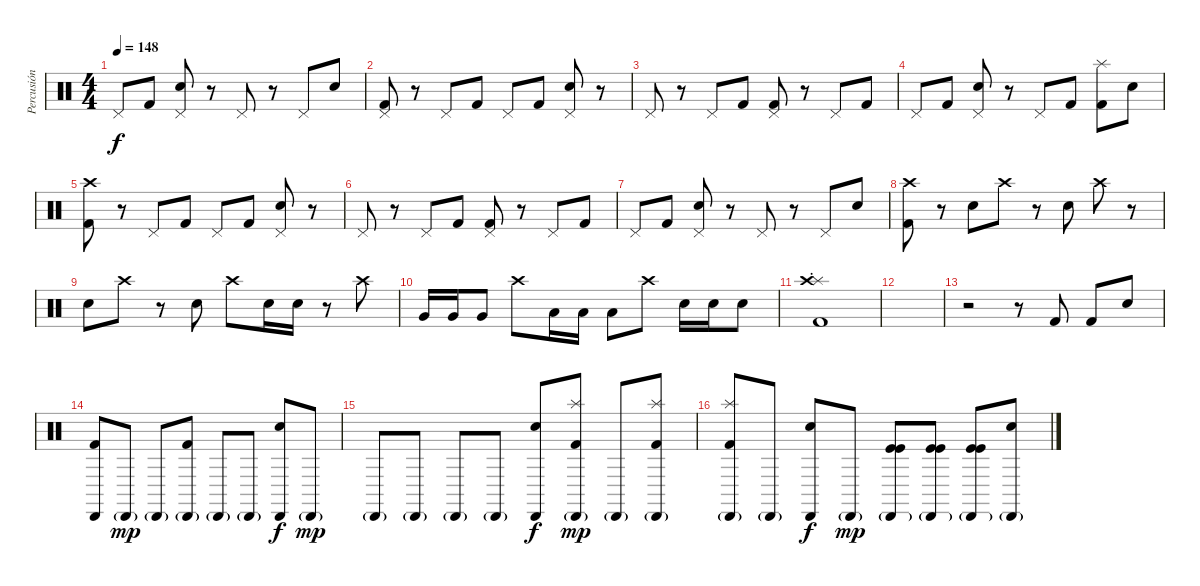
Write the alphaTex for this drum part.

\track ("Percusión" "Percusión") {instrument percussion}
\staff {score}
\articulation defaults
\ts (4 4)
\tempo 148
\clef neutral
\ks c "Pedal Hi-Hat (hit)".8{dy f} "Kick (hit) 2".8
("Pedal Hi-Hat (hit)" "Snare (hit) 2").8 r.8 "Pedal Hi-Hat (hit)".8 r.8 "Pedal Hi-Hat (hit)".8 "Snare (hit) 2".8 |
("Pedal Hi-Hat (hit)" "Kick (hit) 2").8 r.8 "Pedal Hi-Hat (hit)".8 "Kick (hit) 2".8 "Pedal Hi-Hat (hit)".8 "Kick (hit) 2".8 ("Pedal Hi-Hat (hit)" "Snare (hit) 2").8 r.8 |
"Pedal Hi-Hat (hit)".8 r.8 "Pedal Hi-Hat (hit)".8 "Kick (hit) 2".8 ("Pedal Hi-Hat (hit)" "Kick (hit) 2").8 r.8 "Pedal Hi-Hat (hit)".8 "Kick (hit) 2".8 |
"Pedal Hi-Hat (hit)".8 "Kick (hit) 2".8 ("Pedal Hi-Hat (hit)" "Snare (hit) 2").8 r.8 "Pedal Hi-Hat (hit)".8 "Kick (hit) 2".8 ("Splash (hit)" "Kick (hit) 2").8 "Snare (hit) 2".8 |
("Crash high (hit)" "Kick (hit) 2").8 r.8 "Pedal Hi-Hat (hit)".8 "Kick (hit) 2".8 "Pedal Hi-Hat (hit)".8 "Kick (hit) 2".8 ("Pedal Hi-Hat (hit)" "Snare (hit) 2").8 r.8 |
"Pedal Hi-Hat (hit)".8 r.8 "Pedal Hi-Hat (hit)".8 "Kick (hit) 2".8 ("Pedal Hi-Hat (hit)" "Kick (hit) 2").8 r.8 "Pedal Hi-Hat (hit)".8 "Kick (hit) 2".8 |
"Pedal Hi-Hat (hit)".8 "Kick (hit) 2".8 ("Pedal Hi-Hat (hit)" "Snare (hit) 2").8 r.8 "Pedal Hi-Hat (hit)".8 r.8 "Pedal Hi-Hat (hit)".8 "Snare (hit) 2".8 |
("Crash high (hit)" "Kick (hit) 2").8 r.8 "Snare (hit) 2".8 "Crash high (hit)".8 r.8 "Snare (hit) 2".8 "Crash high (hit)".8 r.8 |
"Snare (hit) 2".8 "Crash high (hit)".8 r.8 "Snare (hit) 2".8 "Crash high (hit)".8 "Snare (hit) 2".16 "Snare (hit) 2".16 r.8 "Crash high (hit)".8 |
"Very Low Tom (hit)".16 "Very Low Tom (hit)".16 "Very Low Tom (hit)".8 "Crash high (hit)".8 "Low Floor Tom (hit)".16 "Low Floor Tom (hit)".16 "Low Floor Tom (hit)".8 "Crash high (hit)".8 "Snare (hit) 2".16 "Snare (hit) 2".16 "Snare (hit) 2".8 |
("Splash (hit)" "Crash high (hit)" "Kick (hit) 2"{st}).1 |
|
r.2 r.8 "Kick (hit) 2".8 "Kick (hit) 2".8 "Electric Snare (hit)".8 |
("Kick (hit) 2" "Cabasa (hit)").8 "Cabasa (hit)"{g}.8{dy mp} "Cabasa (hit)"{g}.8 ("Kick (hit) 2" "Cabasa (hit)"{g}).8 "Cabasa (hit)"{g}.8 "Cabasa (hit)"{g}.8 ("Electric Snare (hit)" "Cabasa (hit)").8{dy f} "Cabasa (hit)"{g}.8{dy mp} |
"Cabasa (hit)"{g}.8 "Cabasa (hit)"{g}.8 "Cabasa (hit)"{g}.8 "Cabasa (hit)"{g}.8 ("Electric Snare (hit)" "Cabasa (hit)").8{dy f} ("Splash (hit)" "Kick (hit) 2" "Cabasa (hit)"{g}).8{dy mp} "Cabasa (hit)"{g}.8 ("Splash (hit)" "Kick (hit) 2" "Cabasa (hit)"{g}).8 |
("Splash (hit)" "Kick (hit) 2" "Cabasa (hit)"{g}).8 "Cabasa (hit)"{g}.8 ("Electric Snare (hit)" "Cabasa (hit)").8{dy f} "Cabasa (hit)"{g}.8{dy mp} ("Kick (hit)" "Kick (hit)" "Cabasa (hit)"{g}).8 ("Kick (hit)" "Kick (hit)" "Cabasa (hit)"{g}).8 ("Kick (hit)" "Kick (hit)" "Cabasa (hit)"{g}).8 ("Electric Snare (hit)" "Cabasa (hit)"{g}).8
